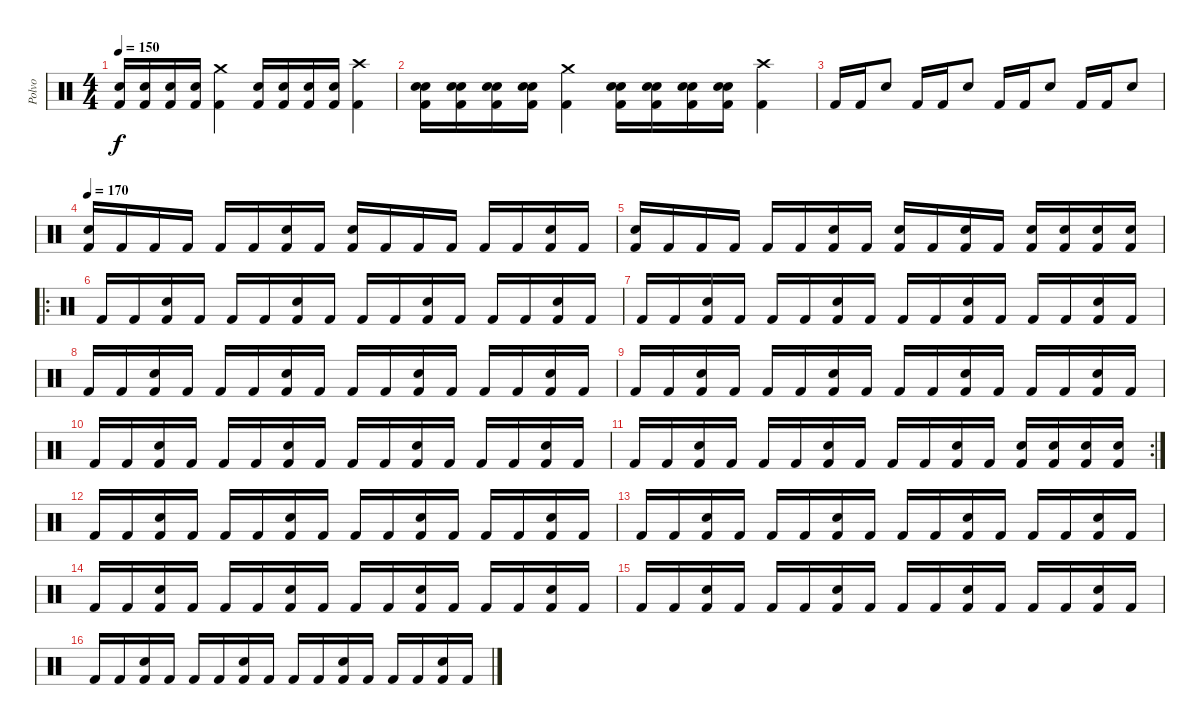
\track ("Polvo" "Polvo") {instrument percussion}
\staff {score}
\articulation defaults
\ts (4 4)
\tempo 150
\clef neutral
\ks c
("Electric Snare (hit)" "Kick (hit) 2").16{dy f} ("Electric Snare (hit)" "Kick (hit) 2").16 ("Electric Snare (hit)" "Kick (hit) 2").16 ("Electric Snare (hit)" "Kick (hit) 2").16 ("Crash medium (hit)" "Kick (hit) 2").4 ("Electric Snare (hit)" "Kick (hit) 2").16 ("Electric Snare (hit)" "Kick (hit) 2").16 ("Electric Snare (hit)" "Kick (hit) 2").16 ("Electric Snare (hit)" "Kick (hit) 2").16 ("Crash high (hit)" "Kick (hit) 2").4 |
("Electric Snare (hit)" "Snare (hit) 2" "Kick (hit) 2").16 ("Electric Snare (hit)" "Snare (hit) 2" "Kick (hit) 2").16 ("Electric Snare (hit)" "Snare (hit) 2" "Kick (hit) 2").16 ("Electric Snare (hit)" "Snare (hit) 2" "Kick (hit) 2").16 ("Crash medium (hit)" "Kick (hit) 2").4 ("Electric Snare (hit)" "Snare (hit) 2" "Kick (hit) 2").16 ("Electric Snare (hit)" "Snare (hit) 2" "Kick (hit) 2").16 ("Electric Snare (hit)" "Snare (hit) 2" "Kick (hit) 2").16 ("Electric Snare (hit)" "Snare (hit) 2" "Kick (hit) 2").16 ("Crash high (hit)" "Kick (hit) 2").4 |
"Kick (hit) 2".16 "Kick (hit) 2".16 "Electric Snare (hit)".8 "Kick (hit) 2".16 "Kick (hit) 2".16 "Electric Snare (hit)".8 "Kick (hit) 2".16 "Kick (hit) 2".16 "Electric Snare (hit)".8 "Kick (hit) 2".16 "Kick (hit) 2".16 "Electric Snare (hit)".8 |
\tempo 170
("Electric Snare (hit)" "Kick (hit) 2").16 "Kick (hit) 2".16 "Kick (hit) 2".16 "Kick (hit) 2".16 "Kick (hit) 2".16 "Kick (hit) 2".16 ("Electric Snare (hit)" "Kick (hit) 2").16 "Kick (hit) 2".16 ("Electric Snare (hit)" "Kick (hit) 2").16 "Kick (hit) 2".16 "Kick (hit) 2".16 "Kick (hit) 2".16 "Kick (hit) 2".16 "Kick (hit) 2".16 ("Electric Snare (hit)" "Kick (hit) 2").16 "Kick (hit) 2".16 |
("Electric Snare (hit)" "Kick (hit) 2").16 "Kick (hit) 2".16 "Kick (hit) 2".16 "Kick (hit) 2".16 "Kick (hit) 2".16 "Kick (hit) 2".16 ("Electric Snare (hit)" "Kick (hit) 2").16 "Kick (hit) 2".16 ("Electric Snare (hit)" "Kick (hit) 2").16 "Kick (hit) 2".16 ("Electric Snare (hit)" "Kick (hit) 2").16 "Kick (hit) 2".16 ("Electric Snare (hit)" "Kick (hit) 2").16 ("Electric Snare (hit)" "Kick (hit) 2").16 ("Electric Snare (hit)" "Kick (hit) 2").16 ("Electric Snare (hit)" "Kick (hit) 2").16 |
\ro "Kick (hit) 2".16 "Kick (hit) 2".16
("Electric Snare (hit)" "Kick (hit) 2").16 "Kick (hit) 2".16 "Kick (hit) 2".16 "Kick (hit) 2".16 ("Electric Snare (hit)" "Kick (hit) 2").16 "Kick (hit) 2".16 "Kick (hit) 2".16 "Kick (hit) 2".16 ("Electric Snare (hit)" "Kick (hit) 2").16 "Kick (hit) 2".16 "Kick (hit) 2".16 "Kick (hit) 2".16 ("Electric Snare (hit)" "Kick (hit) 2").16 "Kick (hit) 2".16 |
"Kick (hit) 2".16 "Kick (hit) 2".16 ("Electric Snare (hit)" "Kick (hit) 2").16 "Kick (hit) 2".16 "Kick (hit) 2".16 "Kick (hit) 2".16 ("Electric Snare (hit)" "Kick (hit) 2").16 "Kick (hit) 2".16 "Kick (hit) 2".16 "Kick (hit) 2".16 ("Electric Snare (hit)" "Kick (hit) 2").16 "Kick (hit) 2".16 "Kick (hit) 2".16 "Kick (hit) 2".16 ("Electric Snare (hit)" "Kick (hit) 2").16 "Kick (hit) 2".16 |
"Kick (hit) 2".16 "Kick (hit) 2".16 ("Electric Snare (hit)" "Kick (hit) 2").16 "Kick (hit) 2".16 "Kick (hit) 2".16 "Kick (hit) 2".16 ("Electric Snare (hit)" "Kick (hit) 2").16 "Kick (hit) 2".16 "Kick (hit) 2".16 "Kick (hit) 2".16 ("Electric Snare (hit)" "Kick (hit) 2").16 "Kick (hit) 2".16 "Kick (hit) 2".16 "Kick (hit) 2".16 ("Electric Snare (hit)" "Kick (hit) 2").16 "Kick (hit) 2".16 |
"Kick (hit) 2".16 "Kick (hit) 2".16 ("Electric Snare (hit)" "Kick (hit) 2").16 "Kick (hit) 2".16 "Kick (hit) 2".16 "Kick (hit) 2".16 ("Electric Snare (hit)" "Kick (hit) 2").16 "Kick (hit) 2".16 "Kick (hit) 2".16 "Kick (hit) 2".16 ("Electric Snare (hit)" "Kick (hit) 2").16 "Kick (hit) 2".16 "Kick (hit) 2".16 "Kick (hit) 2".16 ("Electric Snare (hit)" "Kick (hit) 2").16 "Kick (hit) 2".16 |
"Kick (hit) 2".16 "Kick (hit) 2".16 ("Electric Snare (hit)" "Kick (hit) 2").16 "Kick (hit) 2".16 "Kick (hit) 2".16 "Kick (hit) 2".16 ("Electric Snare (hit)" "Kick (hit) 2").16 "Kick (hit) 2".16 "Kick (hit) 2".16 "Kick (hit) 2".16 ("Electric Snare (hit)" "Kick (hit) 2").16 "Kick (hit) 2".16 "Kick (hit) 2".16 "Kick (hit) 2".16 ("Electric Snare (hit)" "Kick (hit) 2").16 "Kick (hit) 2".16 |
\rc 2 "Kick (hit) 2".16 "Kick (hit) 2".16
("Electric Snare (hit)" "Kick (hit) 2").16 "Kick (hit) 2".16 "Kick (hit) 2".16 "Kick (hit) 2".16 ("Electric Snare (hit)" "Kick (hit) 2").16 "Kick (hit) 2".16 "Kick (hit) 2".16 "Kick (hit) 2".16 ("Electric Snare (hit)" "Kick (hit) 2").16 "Kick (hit) 2".16 ("Electric Snare (hit)" "Kick (hit) 2").16 ("Electric Snare (hit)" "Kick (hit) 2").16 ("Electric Snare (hit)" "Kick (hit) 2").16 ("Electric Snare (hit)" "Kick (hit) 2").16 |
"Kick (hit) 2".16 "Kick (hit) 2".16 ("Electric Snare (hit)" "Kick (hit) 2").16 "Kick (hit) 2".16 "Kick (hit) 2".16 "Kick (hit) 2".16 ("Electric Snare (hit)" "Kick (hit) 2").16 "Kick (hit) 2".16 "Kick (hit) 2".16 "Kick (hit) 2".16 ("Electric Snare (hit)" "Kick (hit) 2").16 "Kick (hit) 2".16 "Kick (hit) 2".16 "Kick (hit) 2".16 ("Electric Snare (hit)" "Kick (hit) 2").16 "Kick (hit) 2".16 |
"Kick (hit) 2".16 "Kick (hit) 2".16 ("Electric Snare (hit)" "Kick (hit) 2").16 "Kick (hit) 2".16 "Kick (hit) 2".16 "Kick (hit) 2".16 ("Electric Snare (hit)" "Kick (hit) 2").16 "Kick (hit) 2".16 "Kick (hit) 2".16 "Kick (hit) 2".16 ("Electric Snare (hit)" "Kick (hit) 2").16 "Kick (hit) 2".16 "Kick (hit) 2".16 "Kick (hit) 2".16 ("Electric Snare (hit)" "Kick (hit) 2").16 "Kick (hit) 2".16 |
"Kick (hit) 2".16 "Kick (hit) 2".16 ("Electric Snare (hit)" "Kick (hit) 2").16 "Kick (hit) 2".16 "Kick (hit) 2".16 "Kick (hit) 2".16 ("Electric Snare (hit)" "Kick (hit) 2").16 "Kick (hit) 2".16 "Kick (hit) 2".16 "Kick (hit) 2".16 ("Electric Snare (hit)" "Kick (hit) 2").16 "Kick (hit) 2".16 "Kick (hit) 2".16 "Kick (hit) 2".16 ("Electric Snare (hit)" "Kick (hit) 2").16 "Kick (hit) 2".16 |
"Kick (hit) 2".16 "Kick (hit) 2".16 ("Electric Snare (hit)" "Kick (hit) 2").16 "Kick (hit) 2".16 "Kick (hit) 2".16 "Kick (hit) 2".16 ("Electric Snare (hit)" "Kick (hit) 2").16 "Kick (hit) 2".16 "Kick (hit) 2".16 "Kick (hit) 2".16 ("Electric Snare (hit)" "Kick (hit) 2").16 "Kick (hit) 2".16 "Kick (hit) 2".16 "Kick (hit) 2".16 ("Electric Snare (hit)" "Kick (hit) 2").16 "Kick (hit) 2".16 |
"Kick (hit) 2".16 "Kick (hit) 2".16 ("Electric Snare (hit)" "Kick (hit) 2").16 "Kick (hit) 2".16 "Kick (hit) 2".16 "Kick (hit) 2".16 ("Electric Snare (hit)" "Kick (hit) 2").16 "Kick (hit) 2".16 "Kick (hit) 2".16 "Kick (hit) 2".16 ("Electric Snare (hit)" "Kick (hit) 2").16 "Kick (hit) 2".16 "Kick (hit) 2".16 "Kick (hit) 2".16 ("Electric Snare (hit)" "Kick (hit) 2").16 "Kick (hit) 2".16
